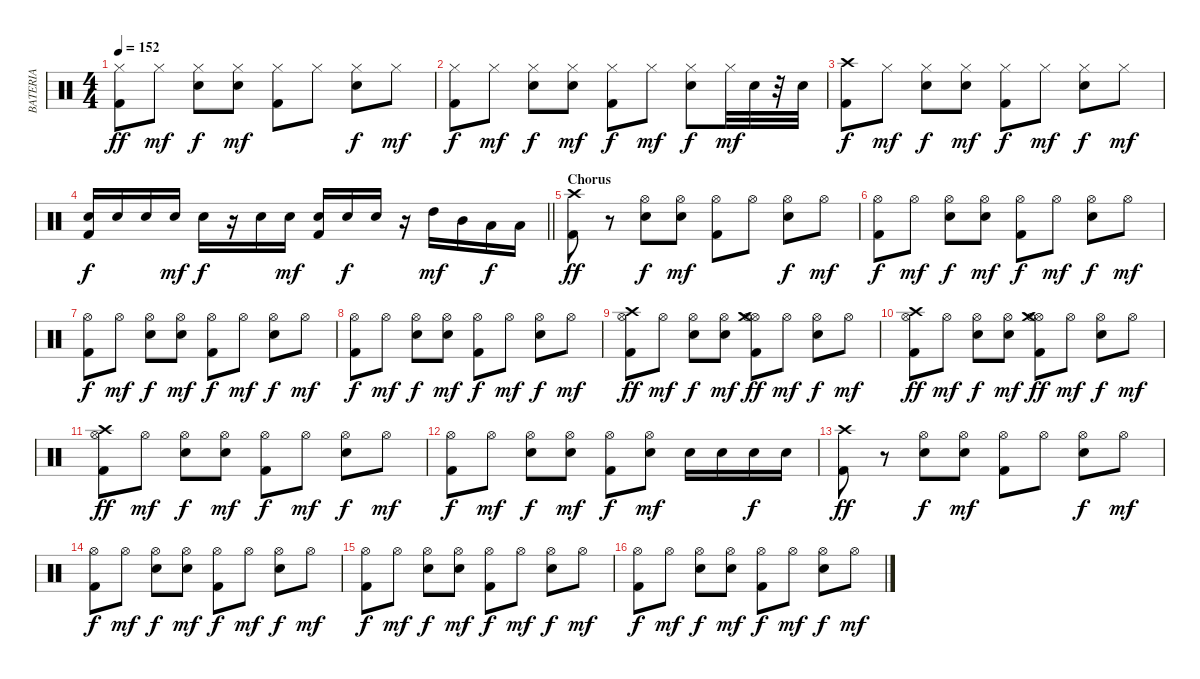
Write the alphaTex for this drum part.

\track ("BATERIA" "BATERIA") {instrument percussion}
\staff {score}
\articulation defaults
\ts (4 4)
\tempo 152
\clef neutral
\ks c
("Kick (hit) 2" "Hi-Hat (closed)").8{dy ff} "Hi-Hat (closed)".8{dy mf} ("Snare (hit) 2" "Hi-Hat (closed)").8{dy f} ("Snare (hit) 2" "Hi-Hat (closed)").8{dy mf} ("Kick (hit) 2" "Hi-Hat (closed)").8 "Hi-Hat (closed)".8 ("Snare (hit) 2" "Hi-Hat (closed)").8{dy f} "Hi-Hat (closed)".8{dy mf} |
("Hi-Hat (closed)" "Kick (hit) 2").8{dy f} "Hi-Hat (closed)".8{dy mf} ("Hi-Hat (closed)" "Snare (hit) 2").8{dy f} ("Hi-Hat (closed)" "Snare (hit) 2").8{dy mf} ("Hi-Hat (closed)" "Kick (hit) 2").8{dy f} "Hi-Hat (closed)".8{dy mf} ("Hi-Hat (closed)" "Snare (hit) 2").8{dy f} "Hi-Hat (closed)".32{dy mf} "Snare (hit) 2".32 r.32 "Snare (hit) 2".32 |
("Crash high (hit)" "Kick (hit) 2").8{dy f} "Hi-Hat (closed)".8{dy mf} ("Hi-Hat (closed)" "Snare (hit) 2").8{dy f} ("Hi-Hat (closed)" "Snare (hit) 2").8{dy mf} ("Hi-Hat (closed)" "Kick (hit) 2").8{dy f} "Hi-Hat (closed)".8{dy mf} ("Hi-Hat (closed)" "Snare (hit) 2").8{dy f} "Hi-Hat (closed)".8{dy mf} |
\barLineRight lightlight
("Kick (hit) 2" "Snare (hit) 2").16{dy f} "Snare (hit) 2".16 "Snare (hit) 2".16 "Snare (hit) 2".16{dy mf} "Snare (hit) 2".16{dy f} r.16 "Snare (hit) 2".16 "Snare (hit) 2".16{dy mf} ("Kick (hit) 2" "Snare (hit) 2").16 "Snare (hit) 2".16{dy f} "Snare (hit) 2".16 r.16 "High Tom (hit)".16{dy mf} "Mid Tom (hit)".16 "Low Tom (hit)".16{dy f} "Low Tom (hit)".16 |
\section ("" "Chorus")
("Kick (hit) 2" "Crash high (hit)").8{dy ff} r.8 ("Snare (hit) 2" "Hi-Hat (open)").8{dy f} ("Snare (hit) 2" "Hi-Hat (open)").8{dy mf} ("Kick (hit) 2" "Hi-Hat (open)").8 "Hi-Hat (open)".8 ("Snare (hit) 2" "Hi-Hat (open)").8{dy f} "Hi-Hat (open)".8{dy mf} |
("Hi-Hat (open)" "Kick (hit) 2").8{dy f} "Hi-Hat (open)".8{dy mf} ("Hi-Hat (open)" "Snare (hit) 2").8{dy f} ("Hi-Hat (open)" "Snare (hit) 2").8{dy mf} ("Hi-Hat (open)" "Kick (hit) 2").8{dy f} "Hi-Hat (open)".8{dy mf} ("Hi-Hat (open)" "Snare (hit) 2").8{dy f} "Hi-Hat (open)".8{dy mf} |
("Hi-Hat (open)" "Kick (hit) 2").8{dy f} "Hi-Hat (open)".8{dy mf} ("Hi-Hat (open)" "Snare (hit) 2").8{dy f} ("Hi-Hat (open)" "Snare (hit) 2").8{dy mf} ("Hi-Hat (open)" "Kick (hit) 2").8{dy f} "Hi-Hat (open)".8{dy mf} ("Hi-Hat (open)" "Snare (hit) 2").8{dy f} "Hi-Hat (open)".8{dy mf} |
("Hi-Hat (open)" "Kick (hit) 2").8{dy f} "Hi-Hat (open)".8{dy mf} ("Snare (hit) 2" "Hi-Hat (open)").8{dy f} ("Snare (hit) 2" "Hi-Hat (open)").8{dy mf} ("Hi-Hat (open)" "Kick (hit) 2").8{dy f} "Hi-Hat (open)".8{dy mf} ("Hi-Hat (open)" "Snare (hit) 2").8{dy f} "Hi-Hat (open)".8{dy mf} |
("Kick (hit) 2" "Crash high (hit)" "Hi-Hat (open)").8{dy ff} "Hi-Hat (open)".8{dy mf} ("Snare (hit) 2" "Hi-Hat (open)").8{dy f} ("Snare (hit) 2" "Hi-Hat (open)").8{dy mf} ("Kick (hit) 2" "Hi-Hat (open)" "Hi-Hat (open)" "Crash medium (hit)").8{dy ff} "Hi-Hat (open)".8{dy mf} ("Snare (hit) 2" "Hi-Hat (open)").8{dy f} "Hi-Hat (open)".8{dy mf} |
("Kick (hit) 2" "Crash high (hit)" "Hi-Hat (open)").8{dy ff} "Hi-Hat (open)".8{dy mf} ("Snare (hit) 2" "Hi-Hat (open)").8{dy f} ("Snare (hit) 2" "Hi-Hat (open)").8{dy mf} ("Kick (hit) 2" "Hi-Hat (open)" "Hi-Hat (open)" "Crash medium (hit)").8{dy ff} "Hi-Hat (open)".8{dy mf} ("Snare (hit) 2" "Hi-Hat (open)").8{dy f} "Hi-Hat (open)".8{dy mf} |
("Kick (hit) 2" "Crash high (hit)" "Hi-Hat (open)").8{dy ff} "Hi-Hat (open)".8{dy mf} ("Snare (hit) 2" "Hi-Hat (open)").8{dy f} ("Snare (hit) 2" "Hi-Hat (open)").8{dy mf} ("Kick (hit) 2" "Hi-Hat (open)").8{dy f} "Hi-Hat (open)".8{dy mf} ("Snare (hit) 2" "Hi-Hat (open)").8{dy f} "Hi-Hat (open)".8{dy mf} |
("Hi-Hat (open)" "Kick (hit) 2").8{dy f} "Hi-Hat (open)".8{dy mf} ("Snare (hit) 2" "Hi-Hat (open)").8{dy f} ("Snare (hit) 2" "Hi-Hat (open)").8{dy mf} ("Kick (hit) 2" "Hi-Hat (open)").8{dy f} ("Snare (hit) 2" "Hi-Hat (open)").8{dy mf} "Snare (hit) 2".16 "Snare (hit) 2".16 "Snare (hit) 2".16{dy f} "Snare (hit) 2".16 |
("Kick (hit) 2" "Crash high (hit)").8{dy ff} r.8 ("Snare (hit) 2" "Hi-Hat (open)").8{dy f} ("Snare (hit) 2" "Hi-Hat (open)").8{dy mf} ("Kick (hit) 2" "Hi-Hat (open)").8 "Hi-Hat (open)".8 ("Snare (hit) 2" "Hi-Hat (open)").8{dy f} "Hi-Hat (open)".8{dy mf} |
("Hi-Hat (open)" "Kick (hit) 2").8{dy f} "Hi-Hat (open)".8{dy mf} ("Hi-Hat (open)" "Snare (hit) 2").8{dy f} ("Hi-Hat (open)" "Snare (hit) 2").8{dy mf} ("Hi-Hat (open)" "Kick (hit) 2").8{dy f} "Hi-Hat (open)".8{dy mf} ("Hi-Hat (open)" "Snare (hit) 2").8{dy f} "Hi-Hat (open)".8{dy mf} |
("Hi-Hat (open)" "Kick (hit) 2").8{dy f} "Hi-Hat (open)".8{dy mf} ("Hi-Hat (open)" "Snare (hit) 2").8{dy f} ("Hi-Hat (open)" "Snare (hit) 2").8{dy mf} ("Hi-Hat (open)" "Kick (hit) 2").8{dy f} "Hi-Hat (open)".8{dy mf} ("Hi-Hat (open)" "Snare (hit) 2").8{dy f} "Hi-Hat (open)".8{dy mf} |
("Hi-Hat (open)" "Kick (hit) 2").8{dy f} "Hi-Hat (open)".8{dy mf} ("Snare (hit) 2" "Hi-Hat (open)").8{dy f} ("Snare (hit) 2" "Hi-Hat (open)").8{dy mf} ("Hi-Hat (open)" "Kick (hit) 2").8{dy f} "Hi-Hat (open)".8{dy mf} ("Hi-Hat (open)" "Snare (hit) 2").8{dy f} "Hi-Hat (open)".8{dy mf}
